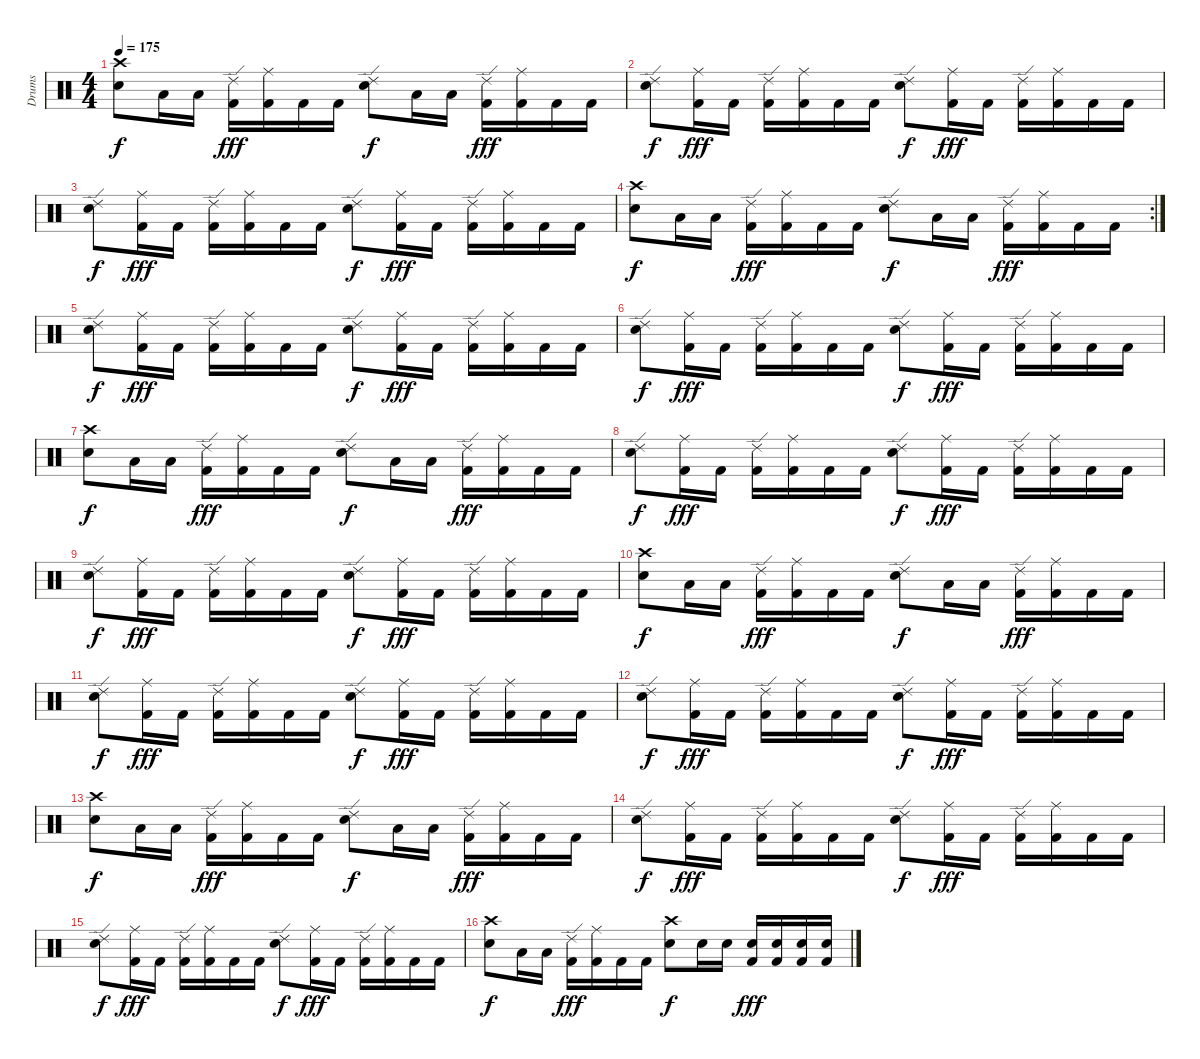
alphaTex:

\track ("Drums" "Drums") {instrument percussion}
\staff {score}
\articulation defaults
\ts (4 4)
\tempo 175
\clef neutral
\ks c
("Crash high (hit)" "Electric Snare (hit)").8{dy f} "Low Tom (hit)".16 "Low Tom (hit)".16 ("Ride (edge) 2" "Kick (hit) 2").16{dy fff} ("Ride (middle)" "Kick (hit) 2").16 "Kick (hit) 2".16 "Kick (hit) 2".16 ("Ride (edge) 2" "Electric Snare (hit)").8{dy f} "Low Tom (hit)".16 "Low Tom (hit)".16 ("Ride (edge) 2" "Kick (hit) 2").16{dy fff} ("Ride (middle)" "Kick (hit) 2").16 "Kick (hit) 2".16 "Kick (hit) 2".16 |
("Ride (edge) 2" "Electric Snare (hit)").8{dy f} ("Ride (middle)" "Kick (hit) 2").16{dy fff} "Kick (hit) 2".16 ("Ride (edge) 2" "Kick (hit) 2").16 ("Ride (middle)" "Kick (hit) 2").16 "Kick (hit) 2".16 "Kick (hit) 2".16 ("Ride (edge) 2" "Electric Snare (hit)").8{dy f} ("Ride (middle)" "Kick (hit) 2").16{dy fff} "Kick (hit) 2".16 ("Ride (edge) 2" "Kick (hit) 2").16 ("Ride (middle)" "Kick (hit) 2").16 "Kick (hit) 2".16 "Kick (hit) 2".16 |
("Ride (edge) 2" "Electric Snare (hit)").8{dy f} ("Ride (middle)" "Kick (hit) 2").16{dy fff} "Kick (hit) 2".16 ("Ride (edge) 2" "Kick (hit) 2").16 ("Ride (middle)" "Kick (hit) 2").16 "Kick (hit) 2".16 "Kick (hit) 2".16 ("Ride (edge) 2" "Electric Snare (hit)").8{dy f} ("Ride (middle)" "Kick (hit) 2").16{dy fff} "Kick (hit) 2".16 ("Ride (edge) 2" "Kick (hit) 2").16 ("Ride (middle)" "Kick (hit) 2").16 "Kick (hit) 2".16 "Kick (hit) 2".16 |
\rc 2
("Crash high (hit)" "Electric Snare (hit)").8{dy f} "Low Tom (hit)".16 "Low Tom (hit)".16 ("Ride (edge) 2" "Kick (hit) 2").16{dy fff} ("Ride (middle)" "Kick (hit) 2").16 "Kick (hit) 2".16 "Kick (hit) 2".16 ("Ride (edge) 2" "Electric Snare (hit)").8{dy f} "Low Tom (hit)".16 "Low Tom (hit)".16 ("Ride (edge) 2" "Kick (hit) 2").16{dy fff} ("Ride (middle)" "Kick (hit) 2").16 "Kick (hit) 2".16 "Kick (hit) 2".16 |
("Ride (edge) 2" "Electric Snare (hit)").8{dy f} ("Ride (middle)" "Kick (hit) 2").16{dy fff} "Kick (hit) 2".16 ("Ride (edge) 2" "Kick (hit) 2").16 ("Ride (middle)" "Kick (hit) 2").16 "Kick (hit) 2".16 "Kick (hit) 2".16 ("Ride (edge) 2" "Electric Snare (hit)").8{dy f} ("Ride (middle)" "Kick (hit) 2").16{dy fff} "Kick (hit) 2".16 ("Ride (edge) 2" "Kick (hit) 2").16 ("Ride (middle)" "Kick (hit) 2").16 "Kick (hit) 2".16 "Kick (hit) 2".16 |
("Ride (edge) 2" "Electric Snare (hit)").8{dy f} ("Ride (middle)" "Kick (hit) 2").16{dy fff} "Kick (hit) 2".16 ("Ride (edge) 2" "Kick (hit) 2").16 ("Ride (middle)" "Kick (hit) 2").16 "Kick (hit) 2".16 "Kick (hit) 2".16 ("Ride (edge) 2" "Electric Snare (hit)").8{dy f} ("Ride (middle)" "Kick (hit) 2").16{dy fff} "Kick (hit) 2".16 ("Ride (edge) 2" "Kick (hit) 2").16 ("Ride (middle)" "Kick (hit) 2").16 "Kick (hit) 2".16 "Kick (hit) 2".16 |
("Crash high (hit)" "Electric Snare (hit)").8{dy f} "Low Tom (hit)".16 "Low Tom (hit)".16 ("Ride (edge) 2" "Kick (hit) 2").16{dy fff} ("Ride (middle)" "Kick (hit) 2").16 "Kick (hit) 2".16 "Kick (hit) 2".16 ("Ride (edge) 2" "Electric Snare (hit)").8{dy f} "Low Tom (hit)".16 "Low Tom (hit)".16 ("Ride (edge) 2" "Kick (hit) 2").16{dy fff} ("Ride (middle)" "Kick (hit) 2").16 "Kick (hit) 2".16 "Kick (hit) 2".16 |
("Ride (edge) 2" "Electric Snare (hit)").8{dy f} ("Ride (middle)" "Kick (hit) 2").16{dy fff} "Kick (hit) 2".16 ("Ride (edge) 2" "Kick (hit) 2").16 ("Ride (middle)" "Kick (hit) 2").16 "Kick (hit) 2".16 "Kick (hit) 2".16 ("Ride (edge) 2" "Electric Snare (hit)").8{dy f} ("Ride (middle)" "Kick (hit) 2").16{dy fff} "Kick (hit) 2".16 ("Ride (edge) 2" "Kick (hit) 2").16 ("Ride (middle)" "Kick (hit) 2").16 "Kick (hit) 2".16 "Kick (hit) 2".16 |
("Ride (edge) 2" "Electric Snare (hit)").8{dy f} ("Ride (middle)" "Kick (hit) 2").16{dy fff} "Kick (hit) 2".16 ("Ride (edge) 2" "Kick (hit) 2").16 ("Ride (middle)" "Kick (hit) 2").16 "Kick (hit) 2".16 "Kick (hit) 2".16 ("Ride (edge) 2" "Electric Snare (hit)").8{dy f} ("Ride (middle)" "Kick (hit) 2").16{dy fff} "Kick (hit) 2".16 ("Ride (edge) 2" "Kick (hit) 2").16 ("Ride (middle)" "Kick (hit) 2").16 "Kick (hit) 2".16 "Kick (hit) 2".16 |
("Crash high (hit)" "Electric Snare (hit)").8{dy f} "Low Tom (hit)".16 "Low Tom (hit)".16 ("Ride (edge) 2" "Kick (hit) 2").16{dy fff} ("Ride (middle)" "Kick (hit) 2").16 "Kick (hit) 2".16 "Kick (hit) 2".16 ("Ride (edge) 2" "Electric Snare (hit)").8{dy f} "Low Tom (hit)".16 "Low Tom (hit)".16 ("Ride (edge) 2" "Kick (hit) 2").16{dy fff} ("Ride (middle)" "Kick (hit) 2").16 "Kick (hit) 2".16 "Kick (hit) 2".16 |
("Ride (edge) 2" "Electric Snare (hit)").8{dy f} ("Ride (middle)" "Kick (hit) 2").16{dy fff} "Kick (hit) 2".16 ("Ride (edge) 2" "Kick (hit) 2").16 ("Ride (middle)" "Kick (hit) 2").16 "Kick (hit) 2".16 "Kick (hit) 2".16 ("Ride (edge) 2" "Electric Snare (hit)").8{dy f} ("Ride (middle)" "Kick (hit) 2").16{dy fff} "Kick (hit) 2".16 ("Ride (edge) 2" "Kick (hit) 2").16 ("Ride (middle)" "Kick (hit) 2").16 "Kick (hit) 2".16 "Kick (hit) 2".16 |
("Ride (edge) 2" "Electric Snare (hit)").8{dy f} ("Ride (middle)" "Kick (hit) 2").16{dy fff} "Kick (hit) 2".16 ("Ride (edge) 2" "Kick (hit) 2").16 ("Ride (middle)" "Kick (hit) 2").16 "Kick (hit) 2".16 "Kick (hit) 2".16 ("Ride (edge) 2" "Electric Snare (hit)").8{dy f} ("Ride (middle)" "Kick (hit) 2").16{dy fff} "Kick (hit) 2".16 ("Ride (edge) 2" "Kick (hit) 2").16 ("Ride (middle)" "Kick (hit) 2").16 "Kick (hit) 2".16 "Kick (hit) 2".16 |
("Crash high (hit)" "Electric Snare (hit)").8{dy f} "Low Tom (hit)".16 "Low Tom (hit)".16 ("Ride (edge) 2" "Kick (hit) 2").16{dy fff} ("Ride (middle)" "Kick (hit) 2").16 "Kick (hit) 2".16 "Kick (hit) 2".16 ("Ride (edge) 2" "Electric Snare (hit)").8{dy f} "Low Tom (hit)".16 "Low Tom (hit)".16 ("Ride (edge) 2" "Kick (hit) 2").16{dy fff} ("Ride (middle)" "Kick (hit) 2").16 "Kick (hit) 2".16 "Kick (hit) 2".16 |
("Ride (edge) 2" "Electric Snare (hit)").8{dy f} ("Ride (middle)" "Kick (hit) 2").16{dy fff} "Kick (hit) 2".16 ("Ride (edge) 2" "Kick (hit) 2").16 ("Ride (middle)" "Kick (hit) 2").16 "Kick (hit) 2".16 "Kick (hit) 2".16 ("Ride (edge) 2" "Electric Snare (hit)").8{dy f} ("Ride (middle)" "Kick (hit) 2").16{dy fff} "Kick (hit) 2".16 ("Ride (edge) 2" "Kick (hit) 2").16 ("Ride (middle)" "Kick (hit) 2").16 "Kick (hit) 2".16 "Kick (hit) 2".16 |
("Ride (edge) 2" "Electric Snare (hit)").8{dy f} ("Ride (middle)" "Kick (hit) 2").16{dy fff} "Kick (hit) 2".16 ("Ride (edge) 2" "Kick (hit) 2").16 ("Ride (middle)" "Kick (hit) 2").16 "Kick (hit) 2".16 "Kick (hit) 2".16 ("Ride (edge) 2" "Electric Snare (hit)").8{dy f} ("Ride (middle)" "Kick (hit) 2").16{dy fff} "Kick (hit) 2".16 ("Ride (edge) 2" "Kick (hit) 2").16 ("Ride (middle)" "Kick (hit) 2").16 "Kick (hit) 2".16 "Kick (hit) 2".16 |
("Crash high (hit)" "Electric Snare (hit)").8{dy f} "Low Tom (hit)".16 "Low Tom (hit)".16 ("Ride (edge) 2" "Kick (hit) 2").16{dy fff} ("Ride (middle)" "Kick (hit) 2").16 "Kick (hit) 2".16 "Kick (hit) 2".16 ("Crash high (hit)" "Electric Snare (hit)").8{dy f} "Electric Snare (hit)".16 "Electric Snare (hit)".16 ("Electric Snare (hit)" "Kick (hit) 2").16{dy fff} ("Electric Snare (hit)" "Kick (hit) 2").16 ("Electric Snare (hit)" "Kick (hit) 2").16 ("Electric Snare (hit)" "Kick (hit) 2").16
